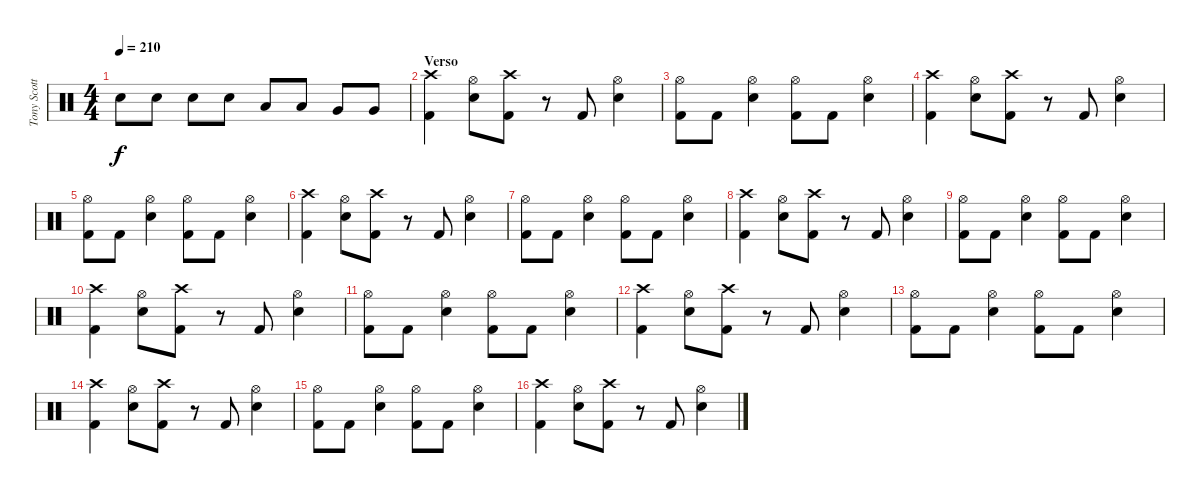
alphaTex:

\track ("Tony Scotto" "Tony Scott") {instrument percussion}
\staff {score}
\articulation defaults
\ts (4 4)
\tempo 210
\clef neutral
\ks c "Snare (hit) 2".8{dy f} "Snare (hit) 2".8 "Snare (hit) 2".8 "Snare (hit) 2".8 "Low Tom (hit)".8 "Low Tom (hit)".8 "Very Low Tom (hit)".8 "Very Low Tom (hit)".8
|
\section ("" "Verso")
("Crash high (hit)" "Kick (hit) 2").4 ("Hi-Hat (open)" "Snare (hit) 2").8 ("Crash high (hit)" "Kick (hit) 2").8 r.8 "Kick (hit) 2".8 ("Hi-Hat (open)" "Snare (hit) 2").4 |
("Hi-Hat (open)" "Kick (hit) 2").8 "Kick (hit) 2".8 ("Hi-Hat (open)" "Snare (hit) 2").4 ("Hi-Hat (open)" "Kick (hit) 2").8 "Kick (hit) 2".8 ("Hi-Hat (open)" "Snare (hit) 2").4 |
("Crash high (hit)" "Kick (hit) 2").4 ("Hi-Hat (open)" "Snare (hit) 2").8 ("Crash high (hit)" "Kick (hit) 2").8 r.8 "Kick (hit) 2".8 ("Hi-Hat (open)" "Snare (hit) 2").4 |
("Hi-Hat (open)" "Kick (hit) 2").8 "Kick (hit) 2".8 ("Hi-Hat (open)" "Snare (hit) 2").4 ("Hi-Hat (open)" "Kick (hit) 2").8 "Kick (hit) 2".8 ("Hi-Hat (open)" "Snare (hit) 2").4 |
("Crash high (hit)" "Kick (hit) 2").4 ("Hi-Hat (open)" "Snare (hit) 2").8 ("Crash high (hit)" "Kick (hit) 2").8 r.8 "Kick (hit) 2".8 ("Hi-Hat (open)" "Snare (hit) 2").4 |
("Hi-Hat (open)" "Kick (hit) 2").8 "Kick (hit) 2".8 ("Hi-Hat (open)" "Snare (hit) 2").4 ("Hi-Hat (open)" "Kick (hit) 2").8 "Kick (hit) 2".8 ("Hi-Hat (open)" "Snare (hit) 2").4 |
("Crash high (hit)" "Kick (hit) 2").4 ("Hi-Hat (open)" "Snare (hit) 2").8 ("Crash high (hit)" "Kick (hit) 2").8 r.8 "Kick (hit) 2".8 ("Hi-Hat (open)" "Snare (hit) 2").4 |
("Hi-Hat (open)" "Kick (hit) 2").8 "Kick (hit) 2".8 ("Hi-Hat (open)" "Snare (hit) 2").4 ("Hi-Hat (open)" "Kick (hit) 2").8 "Kick (hit) 2".8 ("Hi-Hat (open)" "Snare (hit) 2").4 |
("Crash high (hit)" "Kick (hit) 2").4 ("Hi-Hat (open)" "Snare (hit) 2").8 ("Crash high (hit)" "Kick (hit) 2").8 r.8 "Kick (hit) 2".8 ("Hi-Hat (open)" "Snare (hit) 2").4 |
("Hi-Hat (open)" "Kick (hit) 2").8 "Kick (hit) 2".8 ("Hi-Hat (open)" "Snare (hit) 2").4 ("Hi-Hat (open)" "Kick (hit) 2").8 "Kick (hit) 2".8 ("Hi-Hat (open)" "Snare (hit) 2").4 |
("Crash high (hit)" "Kick (hit) 2").4 ("Hi-Hat (open)" "Snare (hit) 2").8 ("Crash high (hit)" "Kick (hit) 2").8 r.8 "Kick (hit) 2".8 ("Hi-Hat (open)" "Snare (hit) 2").4 |
("Hi-Hat (open)" "Kick (hit) 2").8 "Kick (hit) 2".8 ("Hi-Hat (open)" "Snare (hit) 2").4 ("Hi-Hat (open)" "Kick (hit) 2").8 "Kick (hit) 2".8 ("Hi-Hat (open)" "Snare (hit) 2").4 |
("Crash high (hit)" "Kick (hit) 2").4 ("Hi-Hat (open)" "Snare (hit) 2").8 ("Crash high (hit)" "Kick (hit) 2").8 r.8 "Kick (hit) 2".8 ("Hi-Hat (open)" "Snare (hit) 2").4 |
("Hi-Hat (open)" "Kick (hit) 2").8 "Kick (hit) 2".8 ("Hi-Hat (open)" "Snare (hit) 2").4 ("Hi-Hat (open)" "Kick (hit) 2").8 "Kick (hit) 2".8 ("Hi-Hat (open)" "Snare (hit) 2").4 |
("Crash high (hit)" "Kick (hit) 2").4 ("Hi-Hat (open)" "Snare (hit) 2").8 ("Crash high (hit)" "Kick (hit) 2").8 r.8 "Kick (hit) 2".8 ("Hi-Hat (open)" "Snare (hit) 2").4
